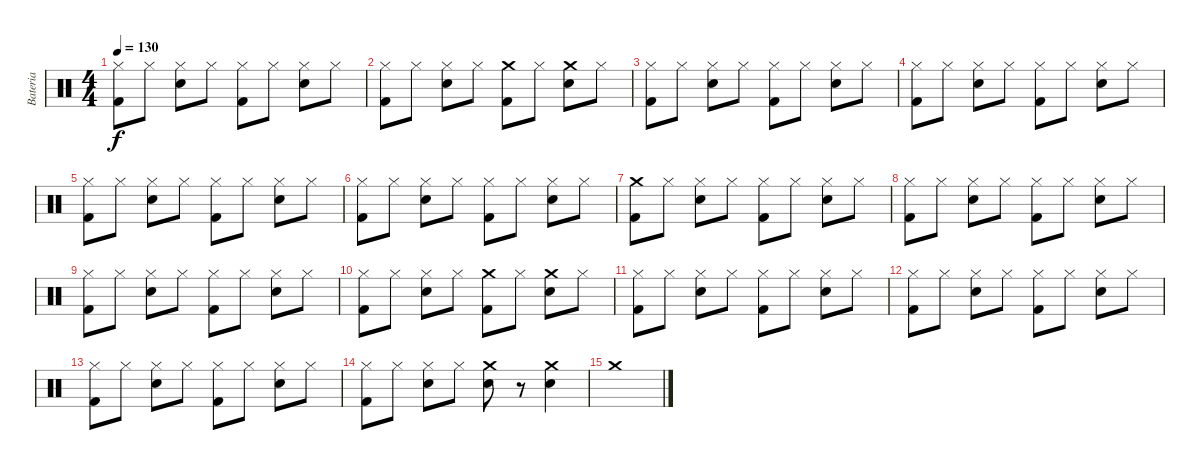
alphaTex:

\track ("Bateria" "Bateria") {instrument percussion}
\staff {score}
\articulation defaults
\ts (4 4)
\tempo 130
\clef neutral
\ks c
("Hi-Hat (closed)" "Kick (hit) 2").8{dy f} "Hi-Hat (closed)".8 ("Hi-Hat (closed)" "Electric Snare (hit)").8 "Hi-Hat (closed)".8 ("Hi-Hat (closed)" "Kick (hit) 2").8 "Hi-Hat (closed)".8 ("Hi-Hat (closed)" "Electric Snare (hit)").8 "Hi-Hat (closed)".8 |
("Hi-Hat (closed)" "Kick (hit) 2").8 "Hi-Hat (closed)".8 ("Hi-Hat (closed)" "Electric Snare (hit)").8 "Hi-Hat (closed)".8 ("Crash medium (hit)" "Kick (hit) 2").8 "Hi-Hat (closed)".8 ("Crash medium (hit)" "Electric Snare (hit)").8 "Hi-Hat (closed)".8 |
("Hi-Hat (closed)" "Kick (hit) 2").8 "Hi-Hat (closed)".8 ("Hi-Hat (closed)" "Electric Snare (hit)").8 "Hi-Hat (closed)".8 ("Hi-Hat (closed)" "Kick (hit) 2").8 "Hi-Hat (closed)".8 ("Hi-Hat (closed)" "Electric Snare (hit)").8 "Hi-Hat (closed)".8 |
("Hi-Hat (closed)" "Kick (hit) 2").8 "Hi-Hat (closed)".8 ("Hi-Hat (closed)" "Electric Snare (hit)").8 "Hi-Hat (closed)".8 ("Hi-Hat (closed)" "Kick (hit) 2").8 "Hi-Hat (closed)".8 ("Hi-Hat (closed)" "Electric Snare (hit)").8 "Hi-Hat (closed)".8 |
("Hi-Hat (closed)" "Kick (hit) 2").8 "Hi-Hat (closed)".8 ("Hi-Hat (closed)" "Electric Snare (hit)").8 "Hi-Hat (closed)".8 ("Hi-Hat (closed)" "Kick (hit) 2").8 "Hi-Hat (closed)".8 ("Hi-Hat (closed)" "Electric Snare (hit)").8 "Hi-Hat (closed)".8 |
("Hi-Hat (closed)" "Kick (hit) 2").8 "Hi-Hat (closed)".8 ("Hi-Hat (closed)" "Electric Snare (hit)").8 "Hi-Hat (closed)".8 ("Hi-Hat (closed)" "Kick (hit) 2").8 "Hi-Hat (closed)".8 ("Hi-Hat (closed)" "Electric Snare (hit)").8 "Hi-Hat (closed)".8 |
("Crash medium (hit)" "Kick (hit) 2").8 "Hi-Hat (closed)".8 ("Hi-Hat (closed)" "Electric Snare (hit)").8 "Hi-Hat (closed)".8 ("Hi-Hat (closed)" "Kick (hit) 2").8 "Hi-Hat (closed)".8 ("Hi-Hat (closed)" "Electric Snare (hit)").8 "Hi-Hat (closed)".8 |
("Hi-Hat (closed)" "Kick (hit) 2").8 "Hi-Hat (closed)".8 ("Hi-Hat (closed)" "Electric Snare (hit)").8 "Hi-Hat (closed)".8 ("Hi-Hat (closed)" "Kick (hit) 2").8 "Hi-Hat (closed)".8 ("Hi-Hat (closed)" "Electric Snare (hit)").8 "Hi-Hat (closed)".8 |
("Hi-Hat (closed)" "Kick (hit) 2").8 "Hi-Hat (closed)".8 ("Hi-Hat (closed)" "Electric Snare (hit)").8 "Hi-Hat (closed)".8 ("Hi-Hat (closed)" "Kick (hit) 2").8 "Hi-Hat (closed)".8 ("Hi-Hat (closed)" "Electric Snare (hit)").8 "Hi-Hat (closed)".8 |
("Hi-Hat (closed)" "Kick (hit) 2").8 "Hi-Hat (closed)".8 ("Hi-Hat (closed)" "Electric Snare (hit)").8 "Hi-Hat (closed)".8 ("Crash medium (hit)" "Kick (hit) 2").8 "Hi-Hat (closed)".8 ("Crash medium (hit)" "Electric Snare (hit)").8 "Hi-Hat (closed)".8 |
("Hi-Hat (closed)" "Kick (hit) 2").8 "Hi-Hat (closed)".8 ("Hi-Hat (closed)" "Electric Snare (hit)").8 "Hi-Hat (closed)".8 ("Hi-Hat (closed)" "Kick (hit) 2").8 "Hi-Hat (closed)".8 ("Hi-Hat (closed)" "Electric Snare (hit)").8 "Hi-Hat (closed)".8 |
("Hi-Hat (closed)" "Kick (hit) 2").8 "Hi-Hat (closed)".8 ("Hi-Hat (closed)" "Electric Snare (hit)").8 "Hi-Hat (closed)".8 ("Hi-Hat (closed)" "Kick (hit) 2").8 "Hi-Hat (closed)".8 ("Hi-Hat (closed)" "Electric Snare (hit)").8 "Hi-Hat (closed)".8 |
("Hi-Hat (closed)" "Kick (hit) 2").8 "Hi-Hat (closed)".8 ("Hi-Hat (closed)" "Electric Snare (hit)").8 "Hi-Hat (closed)".8 ("Hi-Hat (closed)" "Kick (hit) 2").8 "Hi-Hat (closed)".8 ("Hi-Hat (closed)" "Electric Snare (hit)").8 "Hi-Hat (closed)".8 |
("Hi-Hat (closed)" "Kick (hit) 2").8 "Hi-Hat (closed)".8 ("Hi-Hat (closed)" "Electric Snare (hit)").8 "Hi-Hat (closed)".8 ("Crash medium (hit)" "Electric Snare (hit)").8 r.8 ("Crash medium (hit)" "Electric Snare (hit)").4 |
"Crash medium (hit)".1
